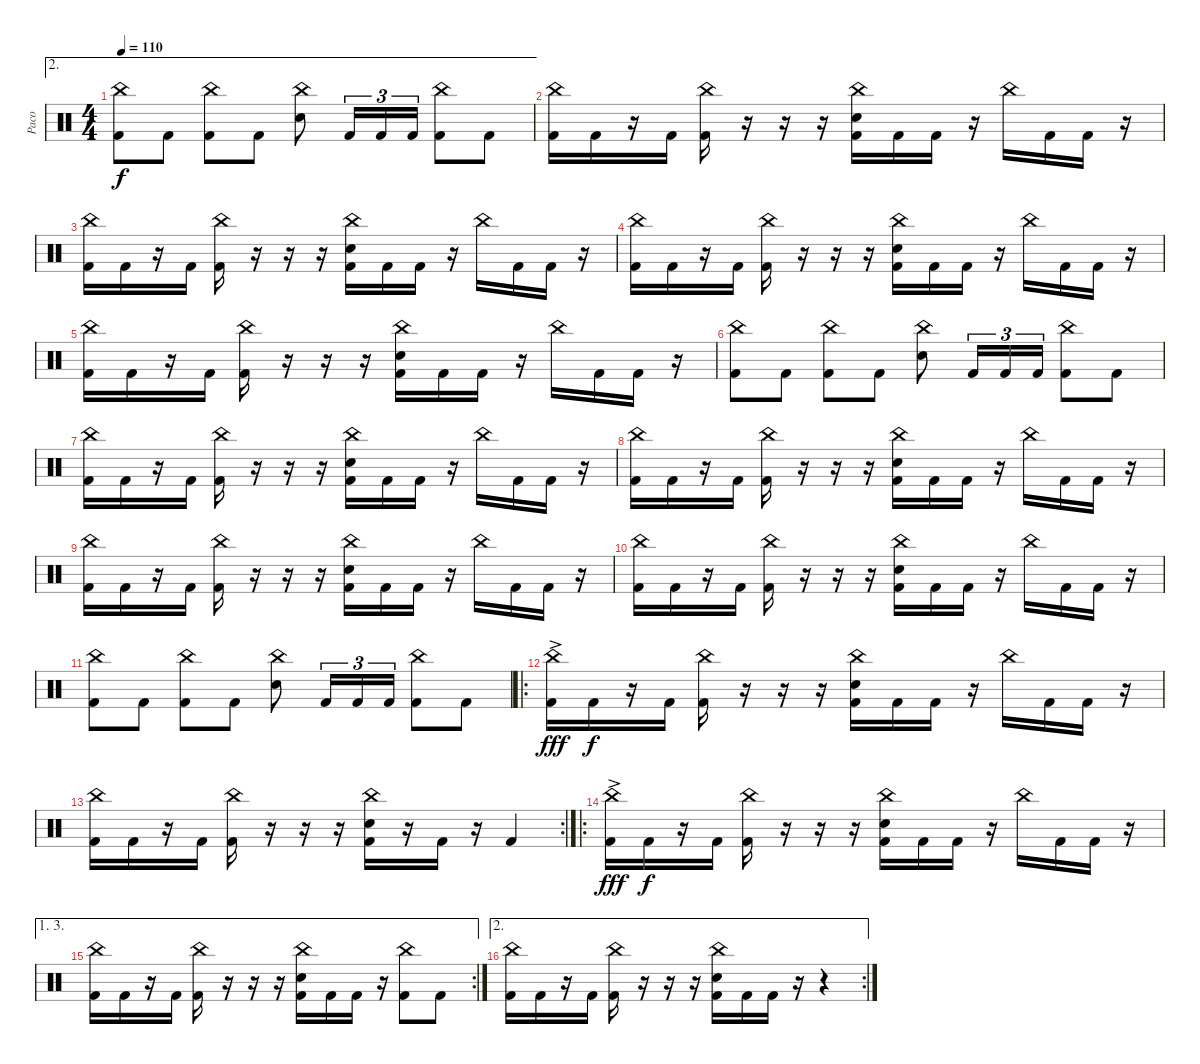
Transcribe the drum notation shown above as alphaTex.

\track ("Paco" "Paco") {instrument percussion}
\staff {score}
\articulation defaults
\ae 2
\ts (4 4)
\tempo 110
\clef neutral
\ks c
("China (hit)" "Kick (hit) 2").8{dy f} "Kick (hit) 2".8 ("China (hit)" "Kick (hit) 2").8 "Kick (hit) 2".8 ("China (hit)" "Electric Snare (hit)").8 "Kick (hit) 2".16{tu (3 2)} "Kick (hit) 2".16{tu (3 2)} "Kick (hit) 2".16{tu (3 2)} ("China (hit)" "Kick (hit) 2").8 "Kick (hit) 2".8 |
("China (hit)" "Kick (hit) 2").16 "Kick (hit) 2".16 r.16 "Kick (hit) 2".16 ("China (hit)" "Kick (hit) 2").16 r.16 r.16 r.16 ("China (hit)" "Electric Snare (hit)" "Kick (hit) 2").16 "Kick (hit) 2".16 "Kick (hit) 2".16 r.16 "China (hit)".16 "Kick (hit) 2".16 "Kick (hit) 2".16 r.16 |
("China (hit)" "Kick (hit) 2").16 "Kick (hit) 2".16 r.16 "Kick (hit) 2".16 ("China (hit)" "Kick (hit) 2").16 r.16 r.16 r.16 ("China (hit)" "Electric Snare (hit)" "Kick (hit) 2").16 "Kick (hit) 2".16 "Kick (hit) 2".16 r.16 "China (hit)".16 "Kick (hit) 2".16 "Kick (hit) 2".16 r.16 |
("China (hit)" "Kick (hit) 2").16 "Kick (hit) 2".16 r.16 "Kick (hit) 2".16 ("China (hit)" "Kick (hit) 2").16 r.16 r.16 r.16 ("China (hit)" "Electric Snare (hit)" "Kick (hit) 2").16 "Kick (hit) 2".16 "Kick (hit) 2".16 r.16 "China (hit)".16 "Kick (hit) 2".16 "Kick (hit) 2".16 r.16 |
("China (hit)" "Kick (hit) 2").16 "Kick (hit) 2".16 r.16 "Kick (hit) 2".16 ("China (hit)" "Kick (hit) 2").16 r.16 r.16 r.16 ("China (hit)" "Electric Snare (hit)" "Kick (hit) 2").16 "Kick (hit) 2".16 "Kick (hit) 2".16 r.16 "China (hit)".16 "Kick (hit) 2".16 "Kick (hit) 2".16 r.16 |
("China (hit)" "Kick (hit) 2").8 "Kick (hit) 2".8 ("China (hit)" "Kick (hit) 2").8 "Kick (hit) 2".8 ("China (hit)" "Electric Snare (hit)").8 "Kick (hit) 2".16{tu (3 2)} "Kick (hit) 2".16{tu (3 2)} "Kick (hit) 2".16{tu (3 2)} ("China (hit)" "Kick (hit) 2").8 "Kick (hit) 2".8 |
("China (hit)" "Kick (hit) 2").16 "Kick (hit) 2".16 r.16 "Kick (hit) 2".16 ("China (hit)" "Kick (hit) 2").16 r.16 r.16 r.16 ("China (hit)" "Electric Snare (hit)" "Kick (hit) 2").16 "Kick (hit) 2".16 "Kick (hit) 2".16 r.16 "China (hit)".16 "Kick (hit) 2".16 "Kick (hit) 2".16 r.16 |
("China (hit)" "Kick (hit) 2").16 "Kick (hit) 2".16 r.16 "Kick (hit) 2".16 ("China (hit)" "Kick (hit) 2").16 r.16 r.16 r.16 ("China (hit)" "Electric Snare (hit)" "Kick (hit) 2").16 "Kick (hit) 2".16 "Kick (hit) 2".16 r.16 "China (hit)".16 "Kick (hit) 2".16 "Kick (hit) 2".16 r.16 |
("China (hit)" "Kick (hit) 2").16 "Kick (hit) 2".16 r.16 "Kick (hit) 2".16 ("China (hit)" "Kick (hit) 2").16 r.16 r.16 r.16 ("China (hit)" "Electric Snare (hit)" "Kick (hit) 2").16 "Kick (hit) 2".16 "Kick (hit) 2".16 r.16 "China (hit)".16 "Kick (hit) 2".16 "Kick (hit) 2".16 r.16 |
("China (hit)" "Kick (hit) 2").16 "Kick (hit) 2".16 r.16 "Kick (hit) 2".16 ("China (hit)" "Kick (hit) 2").16 r.16 r.16 r.16 ("China (hit)" "Electric Snare (hit)" "Kick (hit) 2").16 "Kick (hit) 2".16 "Kick (hit) 2".16 r.16 "China (hit)".16 "Kick (hit) 2".16 "Kick (hit) 2".16 r.16 |
("China (hit)" "Kick (hit) 2").8 "Kick (hit) 2".8 ("China (hit)" "Kick (hit) 2").8 "Kick (hit) 2".8 ("China (hit)" "Electric Snare (hit)").8 "Kick (hit) 2".16{tu (3 2)} "Kick (hit) 2".16{tu (3 2)} "Kick (hit) 2".16{tu (3 2)} ("China (hit)" "Kick (hit) 2").8 "Kick (hit) 2".8 |
\ro
("China (hit)"{ac} "Kick (hit) 2"{ac}).16{dy fff} "Kick (hit) 2".16{dy f} r.16 "Kick (hit) 2".16 ("China (hit)" "Kick (hit) 2").16 r.16 r.16 r.16 ("China (hit)" "Electric Snare (hit)" "Kick (hit) 2").16 "Kick (hit) 2".16 "Kick (hit) 2".16 r.16 "China (hit)".16 "Kick (hit) 2".16 "Kick (hit) 2".16 r.16 |
\rc 2
("China (hit)" "Kick (hit) 2").16 "Kick (hit) 2".16 r.16 "Kick (hit) 2".16 ("China (hit)" "Kick (hit) 2").16 r.16 r.16 r.16 ("China (hit)" "Electric Snare (hit)" "Kick (hit) 2").16 r.16 "Kick (hit) 2".16 r.16 "Kick (hit) 2".4 |
\ro
("China (hit)"{ac} "Kick (hit) 2"{ac}).16{dy fff} "Kick (hit) 2".16{dy f} r.16 "Kick (hit) 2".16 ("China (hit)" "Kick (hit) 2").16 r.16 r.16 r.16 ("China (hit)" "Electric Snare (hit)" "Kick (hit) 2").16 "Kick (hit) 2".16 "Kick (hit) 2".16 r.16 "China (hit)".16 "Kick (hit) 2".16 "Kick (hit) 2".16 r.16 |
\ae (1 3)
\rc 2
("China (hit)" "Kick (hit) 2").16 "Kick (hit) 2".16 r.16 "Kick (hit) 2".16 ("China (hit)" "Kick (hit) 2").16 r.16 r.16 r.16 ("China (hit)" "Electric Snare (hit)" "Kick (hit) 2").16 "Kick (hit) 2".16 "Kick (hit) 2".16 r.16 ("China (hit)" "Kick (hit) 2").8 "Kick (hit) 2".8 |
\ae 2
\rc 2
("China (hit)" "Kick (hit) 2").16 "Kick (hit) 2".16 r.16 "Kick (hit) 2".16 ("China (hit)" "Kick (hit) 2").16 r.16 r.16 r.16 ("China (hit)" "Electric Snare (hit)" "Kick (hit) 2").16 "Kick (hit) 2".16 "Kick (hit) 2".16 r.16 r.4
